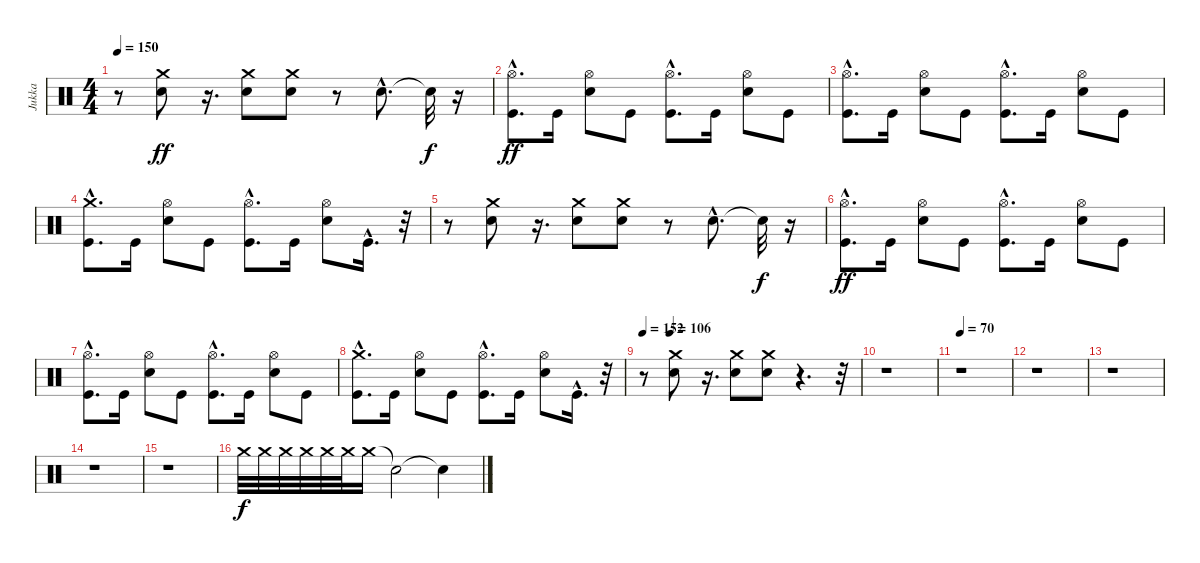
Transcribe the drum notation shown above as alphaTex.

\track ("Jukka" "Jukka") {instrument percussion}
\staff {score}
\articulation defaults
\ts (4 4)
\tempo 150
\clef neutral
\ks c
r.8{dy ff} ("Electric Snare (hit)" "Crash medium (hit)").8 r.16{d} ("Electric Snare (hit)" "Crash medium (hit)").8 ("Electric Snare (hit)" "Crash medium (hit)").8 r.8 "Electric Snare (hit)"{hac}.8{d} "Snare (hit)"{t}.32{dy f} r.16 |
("Kick (hit)"{hac} "Hi-Hat (open)"{hac}).8{d dy ff} "Kick (hit)".16 ("Electric Snare (hit)" "Hi-Hat (open)").8 "Kick (hit)".8 ("Kick (hit)"{hac} "Hi-Hat (open)"{hac}).8{d} "Kick (hit)".16 ("Electric Snare (hit)" "Hi-Hat (open)").8 "Kick (hit)".8 |
("Kick (hit)"{hac} "Hi-Hat (open)"{hac}).8{d} "Kick (hit)".16 ("Electric Snare (hit)" "Hi-Hat (open)").8 "Kick (hit)".8 ("Kick (hit)"{hac} "Hi-Hat (open)"{hac}).8{d} "Kick (hit)".16 ("Electric Snare (hit)" "Hi-Hat (open)").8 "Kick (hit)".8 |
("Kick (hit)"{hac} "Crash medium (hit)"{hac}).8{d} "Kick (hit)".16 ("Electric Snare (hit)" "Hi-Hat (open)").8 "Kick (hit)".8 ("Kick (hit)"{hac} "Hi-Hat (open)"{hac}).8{d} "Kick (hit)".16 ("Electric Snare (hit)" "Hi-Hat (open)").8 "Kick (hit)"{hac}.16{d} r.32 |
r.8 ("Electric Snare (hit)" "Crash medium (hit)").8 r.16{d} ("Electric Snare (hit)" "Crash medium (hit)").8 ("Electric Snare (hit)" "Crash medium (hit)").8 r.8 "Electric Snare (hit)"{hac}.8{d} "Snare (hit)"{t}.32{dy f} r.16 |
("Kick (hit)"{hac} "Hi-Hat (open)"{hac}).8{d dy ff} "Kick (hit)".16 ("Electric Snare (hit)" "Hi-Hat (open)").8 "Kick (hit)".8 ("Kick (hit)"{hac} "Hi-Hat (open)"{hac}).8{d} "Kick (hit)".16 ("Electric Snare (hit)" "Hi-Hat (open)").8 "Kick (hit)".8 |
("Kick (hit)"{hac} "Hi-Hat (open)"{hac}).8{d} "Kick (hit)".16 ("Electric Snare (hit)" "Hi-Hat (open)").8 "Kick (hit)".8 ("Kick (hit)"{hac} "Hi-Hat (open)"{hac}).8{d} "Kick (hit)".16 ("Electric Snare (hit)" "Hi-Hat (open)").8 "Kick (hit)".8 |
("Kick (hit)"{hac} "Crash medium (hit)"{hac}).8{d} "Kick (hit)".16 ("Electric Snare (hit)" "Hi-Hat (open)").8 "Kick (hit)".8 ("Kick (hit)"{hac} "Hi-Hat (open)"{hac}).8{d} "Kick (hit)".16 ("Electric Snare (hit)" "Hi-Hat (open)").8 "Kick (hit)"{hac}.16{d} r.32 |
\tempo 152
\tempo (106 0.125)
r.8 ("Electric Snare (hit)" "Crash medium (hit)").8 r.16{d} ("Electric Snare (hit)" "Crash medium (hit)").8 ("Electric Snare (hit)" "Crash medium (hit)").8 r.4{d} r.32 |
r.1 |
\tempo 70
r.1 |
r.1 |
r.1 |
r.1 |
r.1 |
"Crash medium (hit)".32{dy f volume 4} "Crash medium (hit)".32{volume 6} "Crash medium (hit)".32{volume 8} "Crash medium (hit)".32{volume 10} "Crash medium (hit)".32{volume 12} "Crash medium (hit)".32{volume 14} "Crash medium (hit)".16{volume 16} "Snare (hit)"{t}.2 "Snare (hit)"{t}.4
